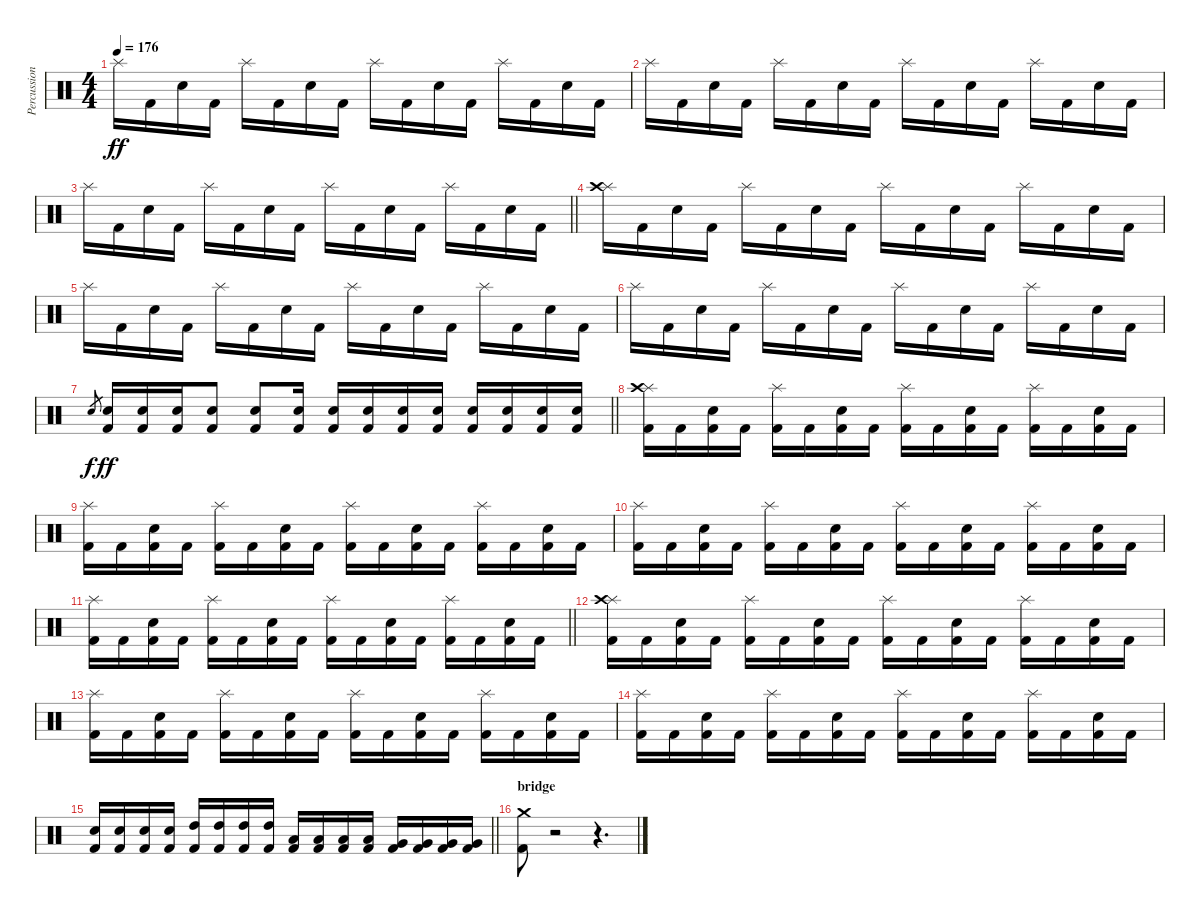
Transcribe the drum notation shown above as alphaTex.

\track ("Percussion" "Percussion") {instrument percussion}
\staff {score}
\articulation defaults
\ts (4 4)
\tempo 176
\clef neutral
\ks c "Splash (hit)".16{dy ff} "Kick (hit) 2".16 "Electric Snare (hit)".16 "Kick (hit) 2".16 "Splash (hit)".16 "Kick (hit) 2".16 "Electric Snare (hit)".16 "Kick (hit) 2".16 "Splash (hit)".16 "Kick (hit) 2".16 "Electric Snare (hit)".16 "Kick (hit) 2".16 "Splash (hit)".16 "Kick (hit) 2".16 "Electric Snare (hit)".16 "Kick (hit) 2".16
|
"Splash (hit)".16 "Kick (hit) 2".16 "Electric Snare (hit)".16 "Kick (hit) 2".16 "Splash (hit)".16 "Kick (hit) 2".16 "Electric Snare (hit)".16 "Kick (hit) 2".16 "Splash (hit)".16 "Kick (hit) 2".16 "Electric Snare (hit)".16 "Kick (hit) 2".16 "Splash (hit)".16 "Kick (hit) 2".16 "Electric Snare (hit)".16 "Kick (hit) 2".16 |
\barLineRight lightlight "Splash (hit)".16 "Kick (hit) 2".16 "Electric Snare (hit)".16 "Kick (hit) 2".16 "Splash (hit)".16 "Kick (hit) 2".16 "Electric Snare (hit)".16 "Kick (hit) 2".16 "Splash (hit)".16 "Kick (hit) 2".16 "Electric Snare (hit)".16 "Kick (hit) 2".16 "Splash (hit)".16 "Kick (hit) 2".16 "Electric Snare (hit)".16 "Kick (hit) 2".16
|
("Splash (hit)" "Crash high (hit)").16 "Kick (hit) 2".16 "Electric Snare (hit)".16 "Kick (hit) 2".16 "Splash (hit)".16 "Kick (hit) 2".16 "Electric Snare (hit)".16 "Kick (hit) 2".16 "Splash (hit)".16 "Kick (hit) 2".16 "Electric Snare (hit)".16 "Kick (hit) 2".16 "Splash (hit)".16 "Kick (hit) 2".16 "Electric Snare (hit)".16 "Kick (hit) 2".16 |
"Splash (hit)".16 "Kick (hit) 2".16 "Electric Snare (hit)".16 "Kick (hit) 2".16 "Splash (hit)".16 "Kick (hit) 2".16 "Electric Snare (hit)".16 "Kick (hit) 2".16 "Splash (hit)".16 "Kick (hit) 2".16 "Electric Snare (hit)".16 "Kick (hit) 2".16 "Splash (hit)".16 "Kick (hit) 2".16 "Electric Snare (hit)".16 "Kick (hit) 2".16 |
"Splash (hit)".16 "Kick (hit) 2".16 "Electric Snare (hit)".16 "Kick (hit) 2".16 "Splash (hit)".16 "Kick (hit) 2".16 "Electric Snare (hit)".16 "Kick (hit) 2".16 "Splash (hit)".16 "Kick (hit) 2".16 "Electric Snare (hit)".16 "Kick (hit) 2".16 "Splash (hit)".16 "Kick (hit) 2".16 "Electric Snare (hit)".16 "Kick (hit) 2".16 |
\barLineRight lightlight "Electric Snare (hit)".8{gr dy f}
("Kick (hit) 2" "Electric Snare (hit)").16{dy ff} ("Kick (hit) 2" "Electric Snare (hit)").16 ("Kick (hit) 2" "Electric Snare (hit)").16 ("Kick (hit) 2" "Electric Snare (hit)").8 ("Kick (hit) 2" "Electric Snare (hit)").8 ("Kick (hit) 2" "Electric Snare (hit)").16 ("Kick (hit) 2" "Electric Snare (hit)").16 ("Kick (hit) 2" "Electric Snare (hit)").16 ("Kick (hit) 2" "Electric Snare (hit)").16 ("Kick (hit) 2" "Electric Snare (hit)").16 ("Kick (hit) 2" "Electric Snare (hit)").16 ("Kick (hit) 2" "Electric Snare (hit)").16 ("Kick (hit) 2" "Electric Snare (hit)").16 ("Kick (hit) 2" "Electric Snare (hit)").16 |
("Kick (hit) 2" "Splash (hit)" "Crash high (hit)").16 "Kick (hit) 2".16 ("Kick (hit) 2" "Electric Snare (hit)").16 "Kick (hit) 2".16 ("Kick (hit) 2" "Splash (hit)").16 "Kick (hit) 2".16 ("Kick (hit) 2" "Electric Snare (hit)").16 "Kick (hit) 2".16 ("Kick (hit) 2" "Splash (hit)").16 "Kick (hit) 2".16 ("Kick (hit) 2" "Electric Snare (hit)").16 "Kick (hit) 2".16 ("Kick (hit) 2" "Splash (hit)").16 "Kick (hit) 2".16 ("Kick (hit) 2" "Electric Snare (hit)").16 "Kick (hit) 2".16 |
("Kick (hit) 2" "Splash (hit)").16 "Kick (hit) 2".16 ("Kick (hit) 2" "Electric Snare (hit)").16 "Kick (hit) 2".16 ("Kick (hit) 2" "Splash (hit)").16 "Kick (hit) 2".16 ("Kick (hit) 2" "Electric Snare (hit)").16 "Kick (hit) 2".16 ("Kick (hit) 2" "Splash (hit)").16 "Kick (hit) 2".16 ("Kick (hit) 2" "Electric Snare (hit)").16 "Kick (hit) 2".16 ("Kick (hit) 2" "Splash (hit)").16 "Kick (hit) 2".16 ("Kick (hit) 2" "Electric Snare (hit)").16 "Kick (hit) 2".16 |
("Kick (hit) 2" "Splash (hit)").16 "Kick (hit) 2".16 ("Kick (hit) 2" "Electric Snare (hit)").16 "Kick (hit) 2".16 ("Kick (hit) 2" "Splash (hit)").16 "Kick (hit) 2".16 ("Kick (hit) 2" "Electric Snare (hit)").16 "Kick (hit) 2".16 ("Kick (hit) 2" "Splash (hit)").16 "Kick (hit) 2".16 ("Kick (hit) 2" "Electric Snare (hit)").16 "Kick (hit) 2".16 ("Kick (hit) 2" "Splash (hit)").16 "Kick (hit) 2".16 ("Kick (hit) 2" "Electric Snare (hit)").16 "Kick (hit) 2".16 |
\barLineRight lightlight
("Kick (hit) 2" "Splash (hit)").16 "Kick (hit) 2".16 ("Kick (hit) 2" "Electric Snare (hit)").16 "Kick (hit) 2".16 ("Kick (hit) 2" "Splash (hit)").16 "Kick (hit) 2".16 ("Kick (hit) 2" "Electric Snare (hit)").16 "Kick (hit) 2".16 ("Kick (hit) 2" "Splash (hit)").16 "Kick (hit) 2".16 ("Kick (hit) 2" "Electric Snare (hit)").16 "Kick (hit) 2".16 ("Kick (hit) 2" "Splash (hit)").16 "Kick (hit) 2".16 ("Kick (hit) 2" "Electric Snare (hit)").16 "Kick (hit) 2".16 |
("Kick (hit) 2" "Splash (hit)" "Crash high (hit)").16 "Kick (hit) 2".16 ("Kick (hit) 2" "Electric Snare (hit)").16 "Kick (hit) 2".16 ("Kick (hit) 2" "Splash (hit)").16 "Kick (hit) 2".16 ("Kick (hit) 2" "Electric Snare (hit)").16 "Kick (hit) 2".16 ("Kick (hit) 2" "Splash (hit)").16 "Kick (hit) 2".16 ("Kick (hit) 2" "Electric Snare (hit)").16 "Kick (hit) 2".16 ("Kick (hit) 2" "Splash (hit)").16 "Kick (hit) 2".16 ("Kick (hit) 2" "Electric Snare (hit)").16 "Kick (hit) 2".16 |
("Kick (hit) 2" "Splash (hit)").16 "Kick (hit) 2".16 ("Kick (hit) 2" "Electric Snare (hit)").16 "Kick (hit) 2".16 ("Kick (hit) 2" "Splash (hit)").16 "Kick (hit) 2".16 ("Kick (hit) 2" "Electric Snare (hit)").16 "Kick (hit) 2".16 ("Kick (hit) 2" "Splash (hit)").16 "Kick (hit) 2".16 ("Kick (hit) 2" "Electric Snare (hit)").16 "Kick (hit) 2".16 ("Kick (hit) 2" "Splash (hit)").16 "Kick (hit) 2".16 ("Kick (hit) 2" "Electric Snare (hit)").16 "Kick (hit) 2".16 |
("Kick (hit) 2" "Splash (hit)").16 "Kick (hit) 2".16 ("Kick (hit) 2" "Electric Snare (hit)").16 "Kick (hit) 2".16 ("Kick (hit) 2" "Splash (hit)").16 "Kick (hit) 2".16 ("Kick (hit) 2" "Electric Snare (hit)").16 "Kick (hit) 2".16 ("Kick (hit) 2" "Splash (hit)").16 "Kick (hit) 2".16 ("Kick (hit) 2" "Electric Snare (hit)").16 "Kick (hit) 2".16 ("Kick (hit) 2" "Splash (hit)").16 "Kick (hit) 2".16 ("Kick (hit) 2" "Electric Snare (hit)").16 "Kick (hit) 2".16 |
\barLineRight lightlight
("Kick (hit) 2" "Electric Snare (hit)").16 ("Kick (hit) 2" "Electric Snare (hit)").16 ("Kick (hit) 2" "Electric Snare (hit)").16 ("Kick (hit) 2" "Electric Snare (hit)").16 ("Kick (hit) 2" "High Tom (hit)").16 ("Kick (hit) 2" "High Tom (hit)").16 ("Kick (hit) 2" "High Tom (hit)").16 ("Kick (hit) 2" "High Tom (hit)").16 ("Kick (hit) 2" "Low Tom (hit)").16 ("Kick (hit) 2" "Low Tom (hit)").16 ("Kick (hit) 2" "Low Tom (hit)").16 ("Kick (hit) 2" "Low Tom (hit)").16 ("Kick (hit) 2" "Very Low Tom (hit)").16 ("Kick (hit) 2" "Very Low Tom (hit)").16 ("Kick (hit) 2" "Very Low Tom (hit)").16 ("Kick (hit) 2" "Very Low Tom (hit)").16 |
\section ("" "bridge")
("Kick (hit) 2" "Crash medium (hit)").8 r.2 r.4{d}
